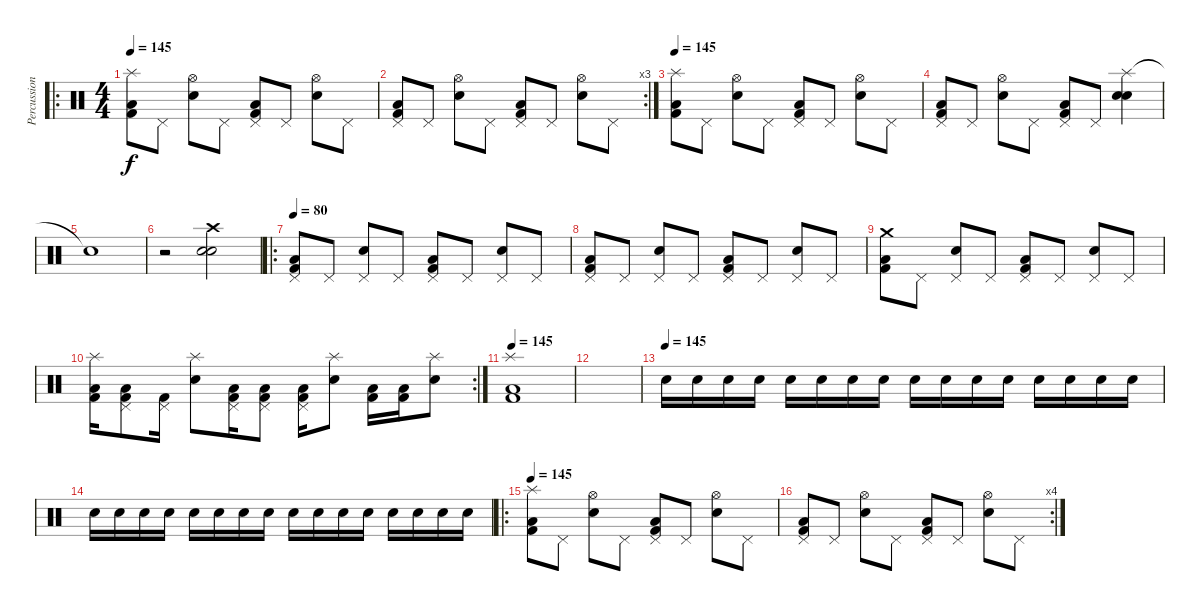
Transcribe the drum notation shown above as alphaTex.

\track ("Percussions" "Percussion") {instrument percussion}
\staff {score}
\articulation defaults
\ro
\ts (4 4)
\tempo 145
\clef neutral
\ks c
("Splash (hit)" "Kick (hit) 2" "Low Floor Tom (hit)").8{dy f} "Pedal Hi-Hat (hit)".8 ("Hi-Hat (open)" "Electric Snare (hit)").8 "Pedal Hi-Hat (hit)".8 ("Pedal Hi-Hat (hit)" "Kick (hit) 2" "Low Floor Tom (hit)").8 "Pedal Hi-Hat (hit)".8 ("Hi-Hat (open)" "Electric Snare (hit)").8 "Pedal Hi-Hat (hit)".8 |
\rc 3
("Pedal Hi-Hat (hit)" "Kick (hit) 2" "Low Floor Tom (hit)").8 "Pedal Hi-Hat (hit)".8 ("Hi-Hat (open)" "Electric Snare (hit)").8 "Pedal Hi-Hat (hit)".8 ("Pedal Hi-Hat (hit)" "Kick (hit) 2" "Low Floor Tom (hit)").8 "Pedal Hi-Hat (hit)".8 ("Hi-Hat (open)" "Electric Snare (hit)").8 "Pedal Hi-Hat (hit)".8 |
\tempo 145
("Splash (hit)" "Kick (hit) 2" "Low Floor Tom (hit)").8 "Pedal Hi-Hat (hit)".8 ("Hi-Hat (open)" "Electric Snare (hit)").8 "Pedal Hi-Hat (hit)".8 ("Pedal Hi-Hat (hit)" "Kick (hit) 2" "Low Floor Tom (hit)").8 "Pedal Hi-Hat (hit)".8 ("Hi-Hat (open)" "Electric Snare (hit)").8 "Pedal Hi-Hat (hit)".8 |
("Pedal Hi-Hat (hit)" "Kick (hit) 2" "Low Floor Tom (hit)").8 "Pedal Hi-Hat (hit)".8 ("Hi-Hat (open)" "Electric Snare (hit)").8 "Pedal Hi-Hat (hit)".8 ("Pedal Hi-Hat (hit)" "Kick (hit) 2" "Low Floor Tom (hit)").8 "Pedal Hi-Hat (hit)".8 ("Splash (hit)" "Electric Snare (hit)" "Snare (hit) 2").4 |
"Snare (hit)"{t}.1 |
r.2 ("Crash high (hit)" "Electric Snare (hit)" "Snare (hit) 2").2 |
\ro
\tempo 80
("Pedal Hi-Hat (hit)" "Kick (hit) 2" "Low Floor Tom (hit)").8 "Pedal Hi-Hat (hit)".8 ("Pedal Hi-Hat (hit)" "Electric Snare (hit)").8 "Pedal Hi-Hat (hit)".8 ("Pedal Hi-Hat (hit)" "Kick (hit) 2" "Low Floor Tom (hit)").8 "Pedal Hi-Hat (hit)".8 ("Pedal Hi-Hat (hit)" "Electric Snare (hit)").8 "Pedal Hi-Hat (hit)".8 |
("Pedal Hi-Hat (hit)" "Kick (hit) 2" "Low Floor Tom (hit)").8 "Pedal Hi-Hat (hit)".8 ("Pedal Hi-Hat (hit)" "Electric Snare (hit)").8 "Pedal Hi-Hat (hit)".8 ("Pedal Hi-Hat (hit)" "Kick (hit) 2" "Low Floor Tom (hit)").8 "Pedal Hi-Hat (hit)".8 ("Pedal Hi-Hat (hit)" "Electric Snare (hit)").8 "Pedal Hi-Hat (hit)".8 |
("Crash medium (hit)" "Kick (hit) 2" "Low Floor Tom (hit)").8 "Pedal Hi-Hat (hit)".8 ("Pedal Hi-Hat (hit)" "Electric Snare (hit)").8 "Pedal Hi-Hat (hit)".8 ("Pedal Hi-Hat (hit)" "Kick (hit) 2" "Low Floor Tom (hit)").8 "Pedal Hi-Hat (hit)".8 ("Pedal Hi-Hat (hit)" "Electric Snare (hit)").8 "Pedal Hi-Hat (hit)".8 |
\rc 2
("Splash (hit)" "Kick (hit) 2" "Low Floor Tom (hit)").16 ("Pedal Hi-Hat (hit)" "Kick (hit) 2" "Low Floor Tom (hit)").8 ("Pedal Hi-Hat (hit)" "Kick (hit) 2").16 ("Splash (hit)" "Electric Snare (hit)").8 ("Pedal Hi-Hat (hit)" "Kick (hit) 2" "Low Floor Tom (hit)").16 ("Pedal Hi-Hat (hit)" "Kick (hit) 2" "Low Floor Tom (hit)").8 ("Pedal Hi-Hat (hit)" "Kick (hit) 2" "Low Floor Tom (hit)").16 ("Splash (hit)" "Electric Snare (hit)").8 ("Kick (hit) 2" "Low Floor Tom (hit)").16 ("Kick (hit) 2" "Low Floor Tom (hit)").16 ("Splash (hit)" "Electric Snare (hit)").8 |
\tempo 145
("Splash (hit)" "Kick (hit) 2" "Low Floor Tom (hit)").1 |
|
\tempo (145)
"Electric Snare (hit)".16 "Electric Snare (hit)".16 "Electric Snare (hit)".16 "Electric Snare (hit)".16 "Electric Snare (hit)".16 "Electric Snare (hit)".16 "Electric Snare (hit)".16 "Electric Snare (hit)".16 "Electric Snare (hit)".16 "Electric Snare (hit)".16 "Electric Snare (hit)".16 "Electric Snare (hit)".16 "Electric Snare (hit)".16 "Electric Snare (hit)".16 "Electric Snare (hit)".16 "Electric Snare (hit)".16 |
"Electric Snare (hit)".16 "Electric Snare (hit)".16 "Electric Snare (hit)".16 "Electric Snare (hit)".16 "Electric Snare (hit)".16 "Electric Snare (hit)".16 "Electric Snare (hit)".16 "Electric Snare (hit)".16 "Electric Snare (hit)".16 "Electric Snare (hit)".16 "Electric Snare (hit)".16 "Electric Snare (hit)".16 "Electric Snare (hit)".16 "Electric Snare (hit)".16 "Electric Snare (hit)".16 "Electric Snare (hit)".16 |
\ro
\tempo 145
("Splash (hit)" "Kick (hit) 2" "Low Floor Tom (hit)").8 "Pedal Hi-Hat (hit)".8 ("Hi-Hat (open)" "Electric Snare (hit)").8 "Pedal Hi-Hat (hit)".8 ("Pedal Hi-Hat (hit)" "Kick (hit) 2" "Low Floor Tom (hit)").8 "Pedal Hi-Hat (hit)".8 ("Hi-Hat (open)" "Electric Snare (hit)").8 "Pedal Hi-Hat (hit)".8 |
\rc 4
("Pedal Hi-Hat (hit)" "Kick (hit) 2" "Low Floor Tom (hit)").8 "Pedal Hi-Hat (hit)".8 ("Hi-Hat (open)" "Electric Snare (hit)").8 "Pedal Hi-Hat (hit)".8 ("Pedal Hi-Hat (hit)" "Kick (hit) 2" "Low Floor Tom (hit)").8 "Pedal Hi-Hat (hit)".8 ("Hi-Hat (open)" "Electric Snare (hit)").8 "Pedal Hi-Hat (hit)".8
